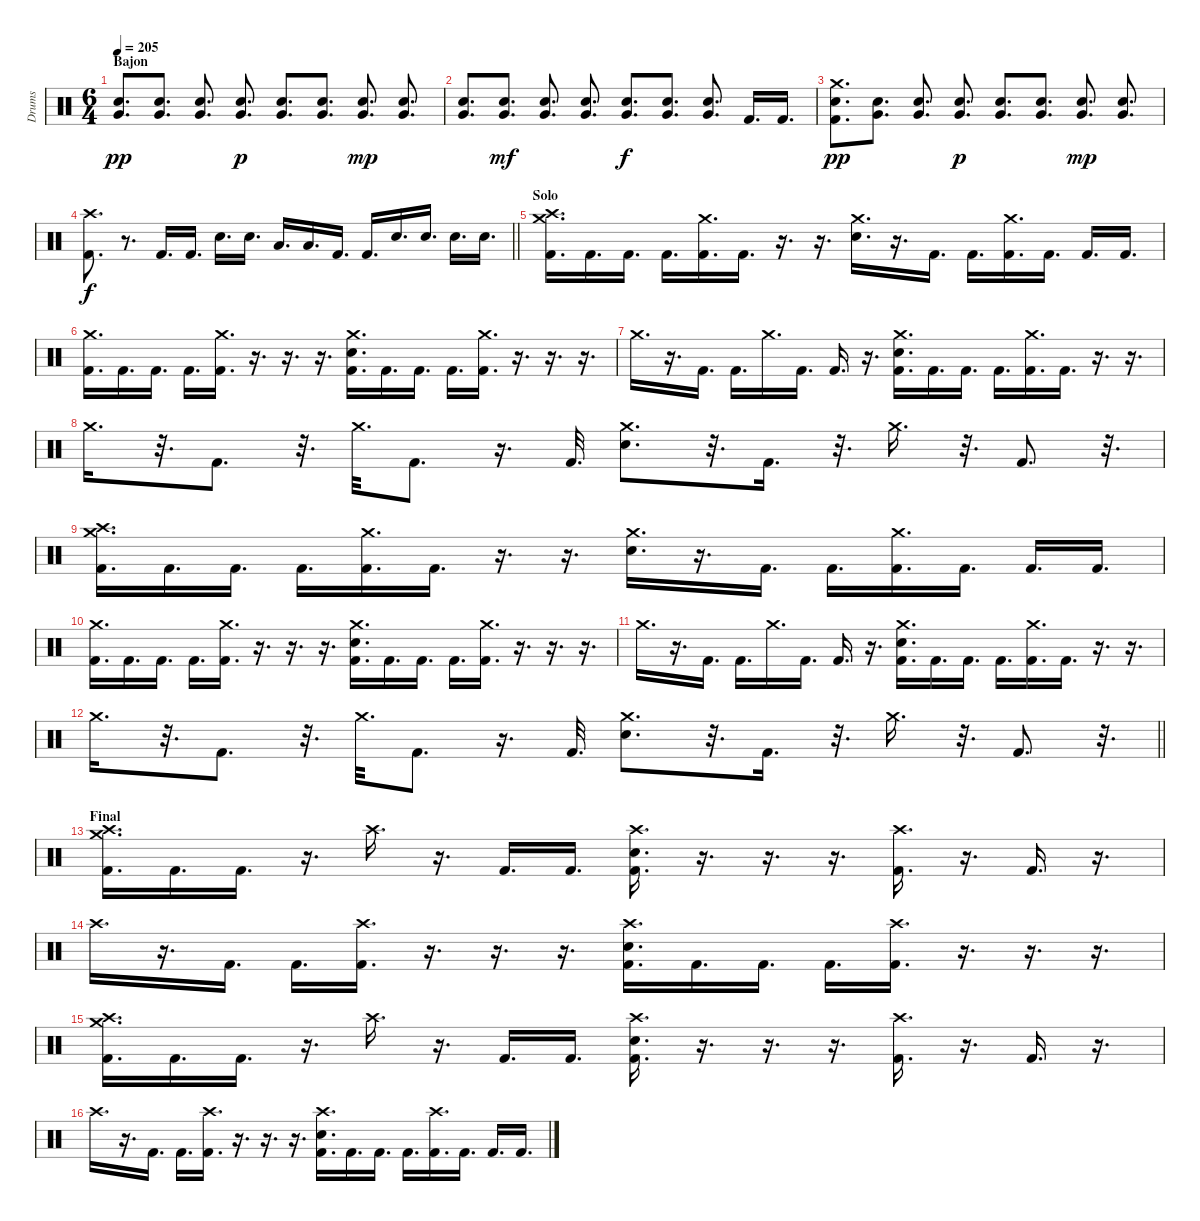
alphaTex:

\track ("Drums" "Drums") {instrument percussion}
\staff {score}
\articulation defaults
\ts (6 4)
\section ("" "Bajon")
\tempo 205
\clef neutral
\ks c
("Electric Snare (hit)" "Very Low Tom (hit)").8{d dy pp} ("Electric Snare (hit)" "Very Low Tom (hit)").8{d} ("Electric Snare (hit)" "Very Low Tom (hit)").8{d} ("Electric Snare (hit)" "Very Low Tom (hit)").8{d dy p} ("Electric Snare (hit)" "Very Low Tom (hit)").8{d} ("Electric Snare (hit)" "Very Low Tom (hit)").8{d} ("Electric Snare (hit)" "Very Low Tom (hit)").8{d dy mp} ("Electric Snare (hit)" "Very Low Tom (hit)").8{d} |
("Electric Snare (hit)" "Very Low Tom (hit)").8{d} ("Electric Snare (hit)" "Very Low Tom (hit)").8{d dy mf} ("Electric Snare (hit)" "Very Low Tom (hit)").8{d} ("Electric Snare (hit)" "Very Low Tom (hit)").8{d} ("Electric Snare (hit)" "Very Low Tom (hit)").8{d dy f} ("Electric Snare (hit)" "Very Low Tom (hit)").8{d} ("Electric Snare (hit)" "Very Low Tom (hit)").8{d} "Kick (hit) 2".16{d} "Kick (hit) 2".16{d} |
("Crash medium (hit)" "Electric Snare (hit)" "Kick (hit) 2").8{d dy pp} ("Electric Snare (hit)" "Very Low Tom (hit)").8{d} ("Electric Snare (hit)" "Very Low Tom (hit)").8{d} ("Electric Snare (hit)" "Very Low Tom (hit)").8{d dy p} ("Electric Snare (hit)" "Very Low Tom (hit)").8{d} ("Electric Snare (hit)" "Very Low Tom (hit)").8{d} ("Electric Snare (hit)" "Very Low Tom (hit)").8{d dy mp} ("Electric Snare (hit)" "Very Low Tom (hit)").8{d} |
\barLineRight lightlight
("Crash high (hit)" "Kick (hit) 2").8{d dy f} r.8{d} "Kick (hit) 2".16{d} "Kick (hit) 2".16{d} "Electric Snare (hit)".16{d} "Electric Snare (hit)".16{d} "Low Tom (hit)".16{d} "Low Tom (hit)".16{d} "Kick (hit) 2".16{d} "Kick (hit) 2".16{d} "Electric Snare (hit)".16{d} "Electric Snare (hit)".16{d} "Electric Snare (hit)".16{d} "Electric Snare (hit)".16{d} |
\section ("" "Solo")
("Crash medium (hit)" "Crash high (hit)" "Kick (hit) 2").16{d} "Kick (hit) 2".16{d} "Kick (hit) 2".16{d} "Kick (hit) 2".16{d} ("Crash medium (hit)" "Kick (hit) 2").16{d} "Kick (hit) 2".16{d} r.16{d} r.16{d} ("Crash medium (hit)" "Electric Snare (hit)").16{d} r.16{d} "Kick (hit) 2".16{d} "Kick (hit) 2".16{d} ("Crash medium (hit)" "Kick (hit) 2").16{d} "Kick (hit) 2".16{d} "Kick (hit) 2".16{d} "Kick (hit) 2".16{d} |
("Crash medium (hit)" "Kick (hit) 2").16{d} "Kick (hit) 2".16{d} "Kick (hit) 2".16{d} "Kick (hit) 2".16{d} ("Crash medium (hit)" "Kick (hit) 2").16{d} r.16{d} r.16{d} r.16{d} ("Crash medium (hit)" "Electric Snare (hit)" "Kick (hit) 2").16{d} "Kick (hit) 2".16{d} "Kick (hit) 2".16{d} "Kick (hit) 2".16{d} ("Crash medium (hit)" "Kick (hit) 2").16{d} r.16{d} r.16{d} r.16{d} |
"Crash medium (hit)".16{d} r.16{d} "Kick (hit) 2".16{d} "Kick (hit) 2".16{d} "Crash medium (hit)".16{d} "Kick (hit) 2".16{d} "Kick (hit) 2".16{d} r.16{d} ("Crash medium (hit)" "Electric Snare (hit)" "Kick (hit) 2").16{d} "Kick (hit) 2".16{d} "Kick (hit) 2".16{d} "Kick (hit) 2".16{d} ("Crash medium (hit)" "Kick (hit) 2").16{d} "Kick (hit) 2".16{d} r.16{d} r.16{d} |
"Crash medium (hit)".16{d} r.32{d} "Kick (hit) 2".8{d} r.32{d} "Crash medium (hit)".32{d} "Kick (hit) 2".8{d} r.16{d} "Kick (hit) 2".32{d} ("Crash medium (hit)" "Electric Snare (hit)").8{d} r.32{d} "Kick (hit) 2".16{d} r.32{d} "Crash medium (hit)".16{d} r.32{d} "Kick (hit) 2".8{d} r.32{d} |
("Crash medium (hit)" "Crash high (hit)" "Kick (hit) 2").16{d} "Kick (hit) 2".16{d} "Kick (hit) 2".16{d} "Kick (hit) 2".16{d} ("Crash medium (hit)" "Kick (hit) 2").16{d} "Kick (hit) 2".16{d} r.16{d} r.16{d} ("Crash medium (hit)" "Electric Snare (hit)").16{d} r.16{d} "Kick (hit) 2".16{d} "Kick (hit) 2".16{d} ("Crash medium (hit)" "Kick (hit) 2").16{d} "Kick (hit) 2".16{d} "Kick (hit) 2".16{d} "Kick (hit) 2".16{d} |
("Crash medium (hit)" "Kick (hit) 2").16{d} "Kick (hit) 2".16{d} "Kick (hit) 2".16{d} "Kick (hit) 2".16{d} ("Crash medium (hit)" "Kick (hit) 2").16{d} r.16{d} r.16{d} r.16{d} ("Crash medium (hit)" "Electric Snare (hit)" "Kick (hit) 2").16{d} "Kick (hit) 2".16{d} "Kick (hit) 2".16{d} "Kick (hit) 2".16{d} ("Crash medium (hit)" "Kick (hit) 2").16{d} r.16{d} r.16{d} r.16{d} |
"Crash medium (hit)".16{d} r.16{d} "Kick (hit) 2".16{d} "Kick (hit) 2".16{d} "Crash medium (hit)".16{d} "Kick (hit) 2".16{d} "Kick (hit) 2".16{d} r.16{d} ("Crash medium (hit)" "Electric Snare (hit)" "Kick (hit) 2").16{d} "Kick (hit) 2".16{d} "Kick (hit) 2".16{d} "Kick (hit) 2".16{d} ("Crash medium (hit)" "Kick (hit) 2").16{d} "Kick (hit) 2".16{d} r.16{d} r.16{d} |
\barLineRight lightlight "Crash medium (hit)".16{d}
r.32{d} "Kick (hit) 2".8{d} r.32{d} "Crash medium (hit)".32{d} "Kick (hit) 2".8{d} r.16{d} "Kick (hit) 2".32{d} ("Crash medium (hit)" "Electric Snare (hit)").8{d} r.32{d} "Kick (hit) 2".16{d} r.32{d} "Crash medium (hit)".16{d} r.32{d} "Kick (hit) 2".8{d} r.32{d} |
\section ("" "Final")
("Crash high (hit)" "Crash medium (hit)" "Kick (hit) 2").16{d} "Kick (hit) 2".16{d} "Kick (hit) 2".16{d} r.16{d} "Crash high (hit)".16{d} r.16{d} "Kick (hit) 2".16{d} "Kick (hit) 2".16{d} ("Crash high (hit)" "Electric Snare (hit)" "Kick (hit) 2").16{d} r.16{d} r.16{d} r.16{d} ("Crash high (hit)" "Kick (hit) 2").16{d} r.16{d} "Kick (hit) 2".16{d} r.16{d} |
"Crash high (hit)".16{d} r.16{d} "Kick (hit) 2".16{d} "Kick (hit) 2".16{d} ("Crash high (hit)" "Kick (hit) 2").16{d} r.16{d} r.16{d} r.16{d} ("Crash high (hit)" "Electric Snare (hit)" "Kick (hit) 2").16{d} "Kick (hit) 2".16{d} "Kick (hit) 2".16{d} "Kick (hit) 2".16{d} ("Crash high (hit)" "Kick (hit) 2").16{d} r.16{d} r.16{d} r.16{d} |
("Crash high (hit)" "Crash medium (hit)" "Kick (hit) 2").16{d} "Kick (hit) 2".16{d} "Kick (hit) 2".16{d} r.16{d} "Crash high (hit)".16{d} r.16{d} "Kick (hit) 2".16{d} "Kick (hit) 2".16{d} ("Crash high (hit)" "Electric Snare (hit)" "Kick (hit) 2").16{d} r.16{d} r.16{d} r.16{d} ("Crash high (hit)" "Kick (hit) 2").16{d} r.16{d} "Kick (hit) 2".16{d} r.16{d} |
"Crash high (hit)".16{d} r.16{d} "Kick (hit) 2".16{d} "Kick (hit) 2".16{d} ("Crash high (hit)" "Kick (hit) 2").16{d} r.16{d} r.16{d} r.16{d} ("Crash high (hit)" "Electric Snare (hit)" "Kick (hit) 2").16{d} "Kick (hit) 2".16{d} "Kick (hit) 2".16{d} "Kick (hit) 2".16{d} ("Crash high (hit)" "Kick (hit) 2").16{d} "Kick (hit) 2".16{d} "Kick (hit) 2".16{d} "Kick (hit) 2".16{d}
